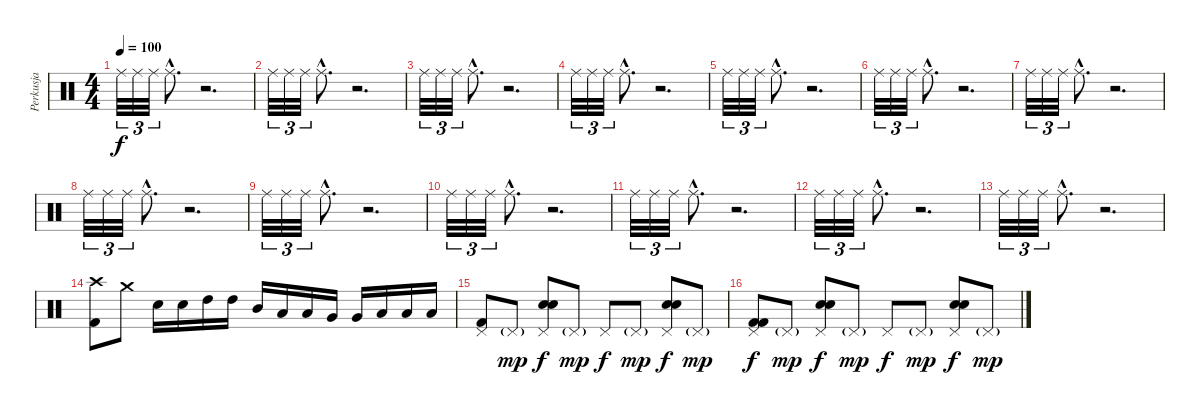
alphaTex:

\track ("Perkusja" "Perkusja") {instrument percussion}
\staff {score}
\articulation defaults
\ts (4 4)
\tempo 100
\clef neutral
\ks aminor "Ride (middle)".32{tu (3 2) dy f} "Ride (middle)".32{tu (3 2)} "Ride (middle)".32{tu (3 2)} "Ride (middle)"{hac}.8{d}
r.2{d} |
"Ride (middle)".32{tu (3 2)} "Ride (middle)".32{tu (3 2)} "Ride (middle)".32{tu (3 2)} "Ride (middle)"{hac}.8{d} r.2{d} |
"Ride (middle)".32{tu (3 2)} "Ride (middle)".32{tu (3 2)} "Ride (middle)".32{tu (3 2)} "Ride (middle)"{hac}.8{d} r.2{d} |
"Ride (middle)".32{tu (3 2)} "Ride (middle)".32{tu (3 2)} "Ride (middle)".32{tu (3 2)} "Ride (middle)"{hac}.8{d} r.2{d} |
"Ride (middle)".32{tu (3 2)} "Ride (middle)".32{tu (3 2)} "Ride (middle)".32{tu (3 2)} "Ride (middle)"{hac}.8{d} r.2{d} |
"Ride (middle)".32{tu (3 2)} "Ride (middle)".32{tu (3 2)} "Ride (middle)".32{tu (3 2)} "Ride (middle)"{hac}.8{d} r.2{d} |
"Ride (middle)".32{tu (3 2)} "Ride (middle)".32{tu (3 2)} "Ride (middle)".32{tu (3 2)} "Ride (middle)"{hac}.8{d} r.2{d} |
"Ride (middle)".32{tu (3 2)} "Ride (middle)".32{tu (3 2)} "Ride (middle)".32{tu (3 2)} "Ride (middle)"{hac}.8{d} r.2{d} |
"Ride (middle)".32{tu (3 2)} "Ride (middle)".32{tu (3 2)} "Ride (middle)".32{tu (3 2)} "Ride (middle)"{hac}.8{d} r.2{d} |
"Ride (middle)".32{tu (3 2)} "Ride (middle)".32{tu (3 2)} "Ride (middle)".32{tu (3 2)} "Ride (middle)"{hac}.8{d} r.2{d} |
"Ride (middle)".32{tu (3 2)} "Ride (middle)".32{tu (3 2)} "Ride (middle)".32{tu (3 2)} "Ride (middle)"{hac}.8{d} r.2{d} |
"Ride (middle)".32{tu (3 2)} "Ride (middle)".32{tu (3 2)} "Ride (middle)".32{tu (3 2)} "Ride (middle)"{hac}.8{d} r.2{d} |
"Ride (middle)".32{tu (3 2)} "Ride (middle)".32{tu (3 2)} "Ride (middle)".32{tu (3 2)} "Ride (middle)"{hac}.8{d} r.2{d} |
\ks c
("Crash high (hit)" "Kick (hit) 2").8 "Crash medium (hit)".8 "Snare (hit) 2".16 "Snare (hit) 2".16 "High Tom (hit)".16 "High Tom (hit)".16 "Mid Tom (hit)".16 "Low Tom (hit)".16 "Low Tom (hit)".16 "Very Low Tom (hit)".16 "Very Low Tom (hit)".16 "Low Floor Tom (hit)".16 "Low Floor Tom (hit)".16 "Low Floor Tom (hit)".16 |
("Pedal Hi-Hat (hit)" "Kick (hit) 2").8 "Pedal Hi-Hat (hit)"{g}.8{dy mp} ("Pedal Hi-Hat (hit)" "Electric Snare (hit)" "Electric Snare (hit)").8{dy f} "Pedal Hi-Hat (hit)"{g}.8{dy mp} "Pedal Hi-Hat (hit)".8{dy f} "Pedal Hi-Hat (hit)"{g}.8{dy mp} ("Pedal Hi-Hat (hit)" "Electric Snare (hit)" "Electric Snare (hit)").8{dy f} "Pedal Hi-Hat (hit)"{g}.8{dy mp} |
("Pedal Hi-Hat (hit)" "Kick (hit) 2" "Kick (hit) 2").8{dy f} "Pedal Hi-Hat (hit)"{g}.8{dy mp} ("Pedal Hi-Hat (hit)" "Electric Snare (hit)" "Electric Snare (hit)").8{dy f} "Pedal Hi-Hat (hit)"{g}.8{dy mp} "Pedal Hi-Hat (hit)".8{dy f} "Pedal Hi-Hat (hit)"{g}.8{dy mp} ("Pedal Hi-Hat (hit)" "Electric Snare (hit)" "Electric Snare (hit)").8{dy f} "Pedal Hi-Hat (hit)"{g}.8{dy mp}
